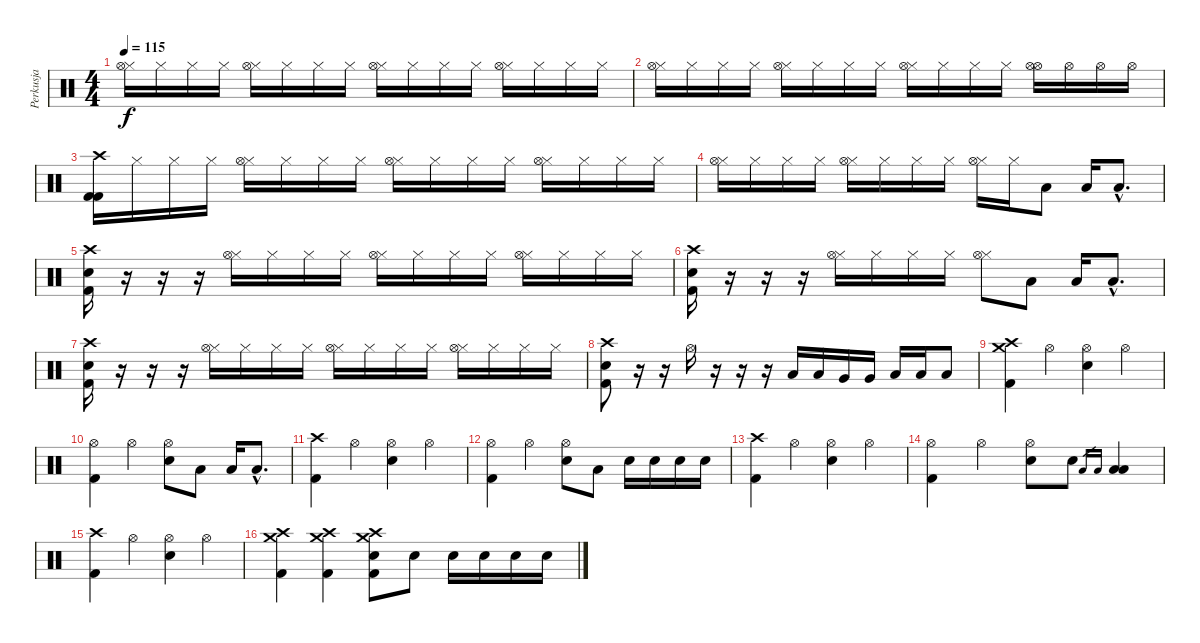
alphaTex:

\track ("Perkusja" "Perkusja") {instrument percussion}
\staff {score}
\articulation defaults
\ts (4 4)
\tempo 115
\clef neutral
\ks c
("Hi-Hat (closed)" "Hi-Hat (open)").16{dy f} "Hi-Hat (closed)".16 "Hi-Hat (closed)".16 "Hi-Hat (closed)".16 ("Hi-Hat (closed)" "Hi-Hat (open)").16 "Hi-Hat (closed)".16 "Hi-Hat (closed)".16 "Hi-Hat (closed)".16 ("Hi-Hat (closed)" "Hi-Hat (open)").16 "Hi-Hat (closed)".16 "Hi-Hat (closed)".16 "Hi-Hat (closed)".16 ("Hi-Hat (closed)" "Hi-Hat (open)").16 "Hi-Hat (closed)".16 "Hi-Hat (closed)".16 "Hi-Hat (closed)".16 |
("Hi-Hat (closed)" "Hi-Hat (open)").16 "Hi-Hat (closed)".16 "Hi-Hat (closed)".16 "Hi-Hat (closed)".16 ("Hi-Hat (closed)" "Hi-Hat (open)").16 "Hi-Hat (closed)".16 "Hi-Hat (closed)".16 "Hi-Hat (closed)".16 ("Hi-Hat (closed)" "Hi-Hat (open)").16 "Hi-Hat (closed)".16 "Hi-Hat (closed)".16 "Hi-Hat (closed)".16 ("Hi-Hat (open)" "Hi-Hat (open)").16 "Hi-Hat (open)".16 "Hi-Hat (open)".16 "Hi-Hat (open)".16 |
("Crash high (hit)" "Kick (hit) 2" "Kick (hit) 2").16 "Hi-Hat (closed)".16 "Hi-Hat (closed)".16 "Hi-Hat (closed)".16 ("Hi-Hat (closed)" "Hi-Hat (open)").16 "Hi-Hat (closed)".16 "Hi-Hat (closed)".16 "Hi-Hat (closed)".16 ("Hi-Hat (closed)" "Hi-Hat (open)").16 "Hi-Hat (closed)".16 "Hi-Hat (closed)".16 "Hi-Hat (closed)".16 ("Hi-Hat (closed)" "Hi-Hat (open)").16 "Hi-Hat (closed)".16 "Hi-Hat (closed)".16 "Hi-Hat (closed)".16 |
("Hi-Hat (closed)" "Hi-Hat (open)").16 "Hi-Hat (closed)".16 "Hi-Hat (closed)".16 "Hi-Hat (closed)".16 ("Hi-Hat (closed)" "Hi-Hat (open)").16 "Hi-Hat (closed)".16 "Hi-Hat (closed)".16 "Hi-Hat (closed)".16 ("Hi-Hat (closed)" "Hi-Hat (open)").16 "Hi-Hat (closed)".16 "Low Floor Tom (hit)".8 "Low Floor Tom (hit)".16 "Low Floor Tom (hit)"{hac}.8{d} |
("Crash high (hit)" "Electric Snare (hit)" "Kick (hit) 2").16 r.16 r.16 r.16 ("Hi-Hat (closed)" "Hi-Hat (open)").16 "Hi-Hat (closed)".16 "Hi-Hat (closed)".16 "Hi-Hat (closed)".16 ("Hi-Hat (closed)" "Hi-Hat (open)").16 "Hi-Hat (closed)".16 "Hi-Hat (closed)".16 "Hi-Hat (closed)".16 ("Hi-Hat (closed)" "Hi-Hat (open)").16 "Hi-Hat (closed)".16 "Hi-Hat (closed)".16 "Hi-Hat (closed)".16 |
("Crash high (hit)" "Electric Snare (hit)" "Kick (hit) 2").16 r.16 r.16 r.16 ("Hi-Hat (closed)" "Hi-Hat (open)").16 "Hi-Hat (closed)".16 "Hi-Hat (closed)".16 "Hi-Hat (closed)".16 ("Hi-Hat (closed)" "Hi-Hat (open)").8 "Low Floor Tom (hit)".8 "Low Floor Tom (hit)".16 "Low Floor Tom (hit)"{hac}.8{d} |
("Crash high (hit)" "Electric Snare (hit)" "Kick (hit) 2").16 r.16 r.16 r.16 ("Hi-Hat (closed)" "Hi-Hat (open)").16 "Hi-Hat (closed)".16 "Hi-Hat (closed)".16 "Hi-Hat (closed)".16 ("Hi-Hat (closed)" "Hi-Hat (open)").16 "Hi-Hat (closed)".16 "Hi-Hat (closed)".16 "Hi-Hat (closed)".16 ("Hi-Hat (closed)" "Hi-Hat (open)").16 "Hi-Hat (closed)".16 "Hi-Hat (closed)".16 "Hi-Hat (closed)".16 |
("Crash high (hit)" "Electric Snare (hit)" "Kick (hit) 2").8 r.16 r.16 "Hi-Hat (open)".16 r.16 r.16 r.16 "Low Tom (hit)".16 "Low Tom (hit)".16 "Very Low Tom (hit)".16 "Very Low Tom (hit)".16 "Low Floor Tom (hit)".16 "Low Floor Tom (hit)".16 "Low Floor Tom (hit)".8 |
("Crash high (hit)" "Crash medium (hit)" "Kick (hit) 2").4 "Hi-Hat (open)".4 ("Hi-Hat (open)" "Electric Snare (hit)").4 "Hi-Hat (open)".4 |
("Hi-Hat (open)" "Kick (hit) 2").4 "Hi-Hat (open)".4 ("Hi-Hat (open)" "Electric Snare (hit)").8 "Low Floor Tom (hit)".8 "Low Floor Tom (hit)".16 "Low Floor Tom (hit)"{hac}.8{d} |
("Crash high (hit)" "Kick (hit) 2").4 "Hi-Hat (open)".4 ("Hi-Hat (open)" "Electric Snare (hit)").4 "Hi-Hat (open)".4 |
("Hi-Hat (open)" "Kick (hit) 2").4 "Hi-Hat (open)".4 ("Hi-Hat (open)" "Electric Snare (hit)").8 "Low Floor Tom (hit)".8 "Electric Snare (hit)".16 "Electric Snare (hit)".16 "Electric Snare (hit)".16 "Electric Snare (hit)".16 |
("Crash high (hit)" "Kick (hit) 2").4 "Hi-Hat (open)".4 ("Hi-Hat (open)" "Electric Snare (hit)").4 "Hi-Hat (open)".4 |
("Hi-Hat (open)" "Kick (hit) 2").4 "Hi-Hat (open)".4 ("Hi-Hat (open)" "Electric Snare (hit)").8 "Electric Snare (hit)".8 "Low Floor Tom (hit)".16{gr} "Low Floor Tom (hit)".16{gr} ("Low Floor Tom (hit)" "Low Floor Tom (hit)").4 |
("Crash high (hit)" "Kick (hit) 2").4 "Hi-Hat (open)".4 ("Hi-Hat (open)" "Electric Snare (hit)").4 "Hi-Hat (open)".4 |
("Crash high (hit)" "Crash medium (hit)" "Kick (hit) 2").4 ("Crash high (hit)" "Crash medium (hit)" "Kick (hit) 2").4 ("Crash high (hit)" "Crash medium (hit)" "Electric Snare (hit)" "Kick (hit) 2").8 "Electric Snare (hit)".8 "Electric Snare (hit)".16 "Electric Snare (hit)".16 "Electric Snare (hit)".16 "Electric Snare (hit)".16
